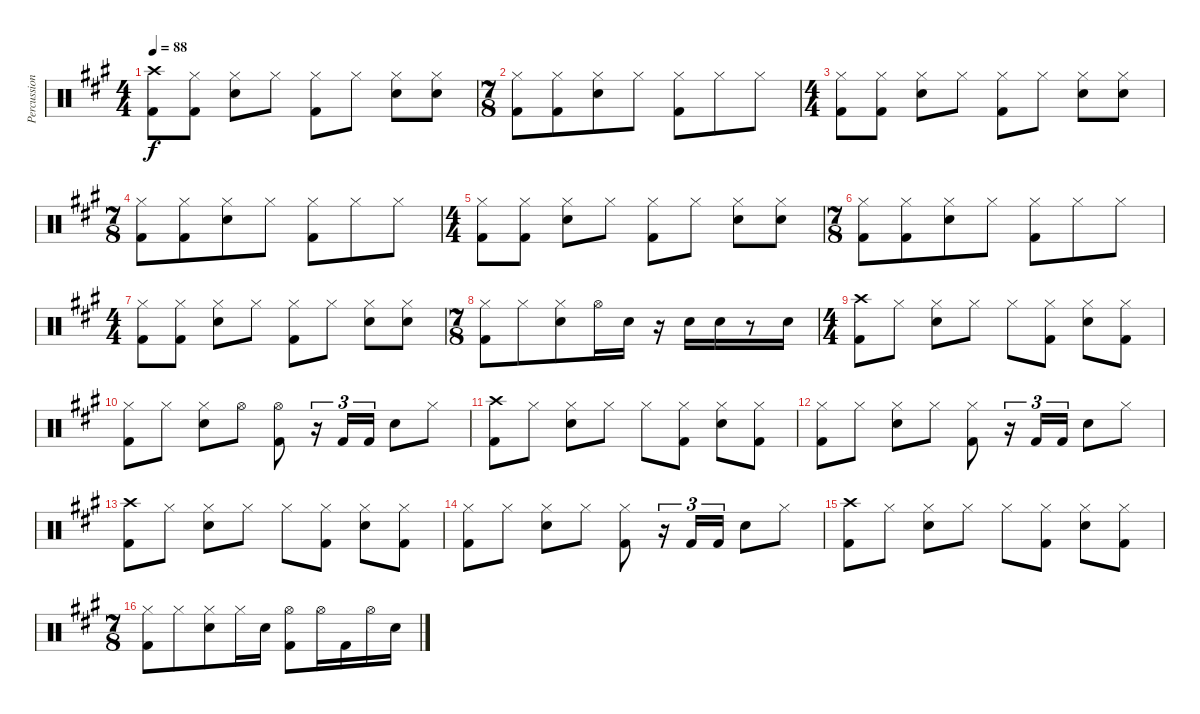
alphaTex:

\track ("Percussion" "Percussion") {instrument percussion}
\staff {score}
\articulation defaults
\ts (4 4)
\tempo 88
\clef neutral
\ks a
("Crash high (hit)" "Kick (hit) 2").8{dy f} ("Hi-Hat (closed)" "Kick (hit) 2").8 ("Hi-Hat (closed)" "Snare (hit) 2").8 "Hi-Hat (closed)".8 ("Hi-Hat (closed)" "Kick (hit) 2").8 "Hi-Hat (closed)".8 ("Hi-Hat (closed)" "Snare (hit) 2").8 ("Hi-Hat (closed)" "Snare (hit) 2").8 |
\ts (7 8)
("Hi-Hat (closed)" "Kick (hit) 2").8 ("Hi-Hat (closed)" "Kick (hit) 2").8 ("Hi-Hat (closed)" "Snare (hit) 2").8 "Hi-Hat (closed)".8 ("Hi-Hat (closed)" "Kick (hit) 2").8 "Hi-Hat (closed)".8 "Hi-Hat (closed)".8 |
\ts (4 4)
("Hi-Hat (closed)" "Kick (hit) 2").8 ("Hi-Hat (closed)" "Kick (hit) 2").8 ("Hi-Hat (closed)" "Snare (hit) 2").8 "Hi-Hat (closed)".8 ("Hi-Hat (closed)" "Kick (hit) 2").8 "Hi-Hat (closed)".8 ("Hi-Hat (closed)" "Snare (hit) 2").8 ("Hi-Hat (closed)" "Snare (hit) 2").8 |
\ts (7 8)
("Hi-Hat (closed)" "Kick (hit) 2").8 ("Hi-Hat (closed)" "Kick (hit) 2").8 ("Hi-Hat (closed)" "Snare (hit) 2").8 "Hi-Hat (closed)".8 ("Hi-Hat (closed)" "Kick (hit) 2").8 "Hi-Hat (closed)".8 "Hi-Hat (closed)".8 |
\ts (4 4)
("Hi-Hat (closed)" "Kick (hit) 2").8 ("Hi-Hat (closed)" "Kick (hit) 2").8 ("Hi-Hat (closed)" "Snare (hit) 2").8 "Hi-Hat (closed)".8 ("Hi-Hat (closed)" "Kick (hit) 2").8 "Hi-Hat (closed)".8 ("Hi-Hat (closed)" "Snare (hit) 2").8 ("Hi-Hat (closed)" "Snare (hit) 2").8 |
\ts (7 8)
("Hi-Hat (closed)" "Kick (hit) 2").8 ("Hi-Hat (closed)" "Kick (hit) 2").8 ("Hi-Hat (closed)" "Snare (hit) 2").8 "Hi-Hat (closed)".8 ("Hi-Hat (closed)" "Kick (hit) 2").8 "Hi-Hat (closed)".8 "Hi-Hat (closed)".8 |
\ts (4 4)
("Hi-Hat (closed)" "Kick (hit) 2").8 ("Hi-Hat (closed)" "Kick (hit) 2").8 ("Hi-Hat (closed)" "Snare (hit) 2").8 "Hi-Hat (closed)".8 ("Hi-Hat (closed)" "Kick (hit) 2").8 "Hi-Hat (closed)".8 ("Hi-Hat (closed)" "Snare (hit) 2").8 ("Hi-Hat (closed)" "Snare (hit) 2").8 |
\ts (7 8)
("Hi-Hat (closed)" "Kick (hit) 2").8 "Hi-Hat (closed)".8 ("Hi-Hat (closed)" "Snare (hit) 2").8 "Hi-Hat (open)".16 "Snare (hit) 2".16 r.16 "Snare (hit) 2".16 "Snare (hit) 2".16 r.8 "Snare (hit) 2".16 |
\ts (4 4)
("Crash high (hit)" "Kick (hit) 2").8 "Hi-Hat (closed)".8 ("Hi-Hat (closed)" "Snare (hit) 2").8 "Hi-Hat (closed)".8 "Hi-Hat (closed)".8 ("Hi-Hat (closed)" "Kick (hit) 2").8 ("Hi-Hat (closed)" "Snare (hit) 2").8 ("Hi-Hat (closed)" "Kick (hit) 2").8 |
("Hi-Hat (closed)" "Kick (hit) 2").8 "Hi-Hat (closed)".8 ("Hi-Hat (closed)" "Snare (hit) 2").8 "Hi-Hat (open)".8 ("Hi-Hat (open)" "Kick (hit) 2").8 r.16{tu (3 2)} "Kick (hit) 2".16{tu (3 2)} "Kick (hit) 2".16{tu (3 2)} "Snare (hit) 2".8 "Hi-Hat (closed)".8 |
("Crash high (hit)" "Kick (hit) 2").8 "Hi-Hat (closed)".8 ("Hi-Hat (closed)" "Snare (hit) 2").8 "Hi-Hat (closed)".8 "Hi-Hat (closed)".8 ("Hi-Hat (closed)" "Kick (hit) 2").8 ("Hi-Hat (closed)" "Snare (hit) 2").8 ("Hi-Hat (closed)" "Kick (hit) 2").8 |
("Hi-Hat (closed)" "Kick (hit) 2").8 "Hi-Hat (closed)".8 ("Hi-Hat (closed)" "Snare (hit) 2").8 "Hi-Hat (closed)".8 ("Hi-Hat (closed)" "Kick (hit) 2").8 r.16{tu (3 2)} "Kick (hit) 2".16{tu (3 2)} "Kick (hit) 2".16{tu (3 2)} "Snare (hit) 2".8 "Hi-Hat (closed)".8 |
("Crash high (hit)" "Kick (hit) 2").8 "Hi-Hat (closed)".8 ("Hi-Hat (closed)" "Snare (hit) 2").8 "Hi-Hat (closed)".8 "Hi-Hat (closed)".8 ("Hi-Hat (closed)" "Kick (hit) 2").8 ("Hi-Hat (closed)" "Snare (hit) 2").8 ("Hi-Hat (closed)" "Kick (hit) 2").8 |
("Hi-Hat (closed)" "Kick (hit) 2").8 "Hi-Hat (closed)".8 ("Hi-Hat (closed)" "Snare (hit) 2").8 "Hi-Hat (closed)".8 ("Hi-Hat (closed)" "Kick (hit) 2").8 r.16{tu (3 2)} "Kick (hit) 2".16{tu (3 2)} "Kick (hit) 2".16{tu (3 2)} "Snare (hit) 2".8 "Hi-Hat (closed)".8 |
("Crash high (hit)" "Kick (hit) 2").8 "Hi-Hat (closed)".8 ("Hi-Hat (closed)" "Snare (hit) 2").8 "Hi-Hat (closed)".8 "Hi-Hat (closed)".8 ("Hi-Hat (closed)" "Kick (hit) 2").8 ("Hi-Hat (closed)" "Snare (hit) 2").8 ("Hi-Hat (closed)" "Kick (hit) 2").8 |
\ts (7 8)
("Hi-Hat (closed)" "Kick (hit) 2").8 "Hi-Hat (closed)".8 ("Hi-Hat (closed)" "Snare (hit) 2").8 "Hi-Hat (closed)".16 "Snare (hit) 2".16 ("Hi-Hat (open)" "Kick (hit) 2").8 "Hi-Hat (open)".16 "Kick (hit) 2".16 "Hi-Hat (open)".16 "Snare (hit) 2".16
